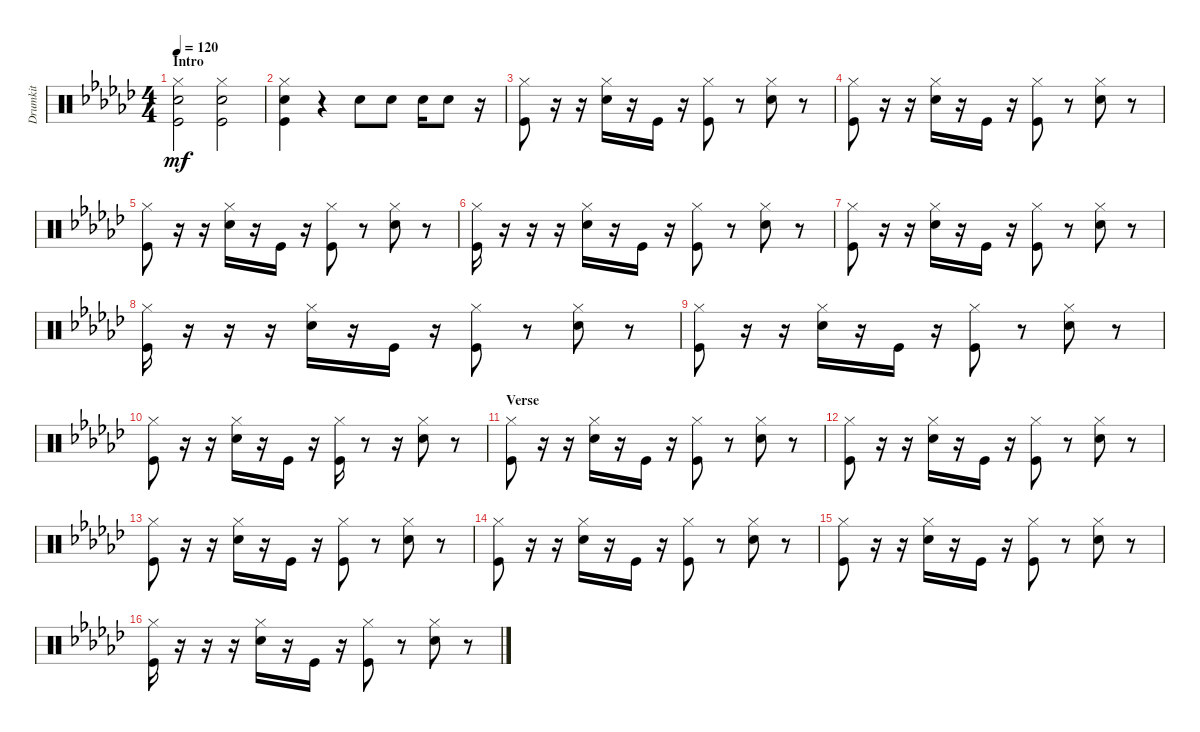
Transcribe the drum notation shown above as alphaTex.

\track ("Drumkit" "Drumkit") {instrument percussion}
\staff {score}
\articulation defaults
\ts (4 4)
\section ("" "Intro")
\tempo 120
\clef neutral
\ks ebminor
("Hi-Hat (closed)" "Snare (hit) 2" "Kick (hit)").2{dy mf} ("Hi-Hat (closed)" "Snare (hit) 2" "Kick (hit)").2 |
("Hi-Hat (closed)" "Snare (hit) 2" "Kick (hit)").4 r.4 "Snare (hit) 2".8 "Snare (hit) 2".8 "Snare (hit) 2".16 "Snare (hit) 2".8 r.16 |
("Kick (hit)" "Hi-Hat (closed)").8 r.16 r.16 ("Snare (hit) 2" "Hi-Hat (closed)").16 r.16 "Kick (hit)".16 r.16 ("Kick (hit)" "Hi-Hat (closed)").8 r.8 ("Snare (hit) 2" "Hi-Hat (closed)").8 r.8 |
("Kick (hit)" "Hi-Hat (closed)").8 r.16 r.16 ("Snare (hit) 2" "Hi-Hat (closed)").16 r.16 "Kick (hit)".16 r.16 ("Kick (hit)" "Hi-Hat (closed)").8 r.8 ("Snare (hit) 2" "Hi-Hat (closed)").8 r.8 |
("Kick (hit)" "Hi-Hat (closed)").8 r.16 r.16 ("Snare (hit) 2" "Hi-Hat (closed)").16 r.16 "Kick (hit)".16 r.16 ("Kick (hit)" "Hi-Hat (closed)").8 r.8 ("Snare (hit) 2" "Hi-Hat (closed)").8 r.8 |
("Kick (hit)" "Hi-Hat (closed)").16 r.16 r.16 r.16 ("Snare (hit) 2" "Hi-Hat (closed)").16 r.16 "Kick (hit)".16 r.16 ("Kick (hit)" "Hi-Hat (closed)").8 r.8 ("Snare (hit) 2" "Hi-Hat (closed)").8 r.8 |
("Kick (hit)" "Hi-Hat (closed)").8 r.16 r.16 ("Snare (hit) 2" "Hi-Hat (closed)").16 r.16 "Kick (hit)".16 r.16 ("Kick (hit)" "Hi-Hat (closed)").8 r.8 ("Snare (hit) 2" "Hi-Hat (closed)").8 r.8 |
("Kick (hit)" "Hi-Hat (closed)").16 r.16 r.16 r.16 ("Snare (hit) 2" "Hi-Hat (closed)").16 r.16 "Kick (hit)".16 r.16 ("Kick (hit)" "Hi-Hat (closed)").8 r.8 ("Snare (hit) 2" "Hi-Hat (closed)").8 r.8 |
("Kick (hit)" "Hi-Hat (closed)").8 r.16 r.16 ("Snare (hit) 2" "Hi-Hat (closed)").16 r.16 "Kick (hit)".16 r.16 ("Kick (hit)" "Hi-Hat (closed)").8 r.8 ("Snare (hit) 2" "Hi-Hat (closed)").8 r.8 |
("Kick (hit)" "Hi-Hat (closed)").8 r.16 r.16 ("Snare (hit) 2" "Hi-Hat (closed)").16 r.16 "Kick (hit)".16 r.16 ("Kick (hit)" "Hi-Hat (closed)").16 r.8 r.16 ("Snare (hit) 2" "Hi-Hat (closed)").8 r.8 |
\section ("" "Verse")
("Kick (hit)" "Hi-Hat (closed)").8 r.16 r.16 ("Snare (hit) 2" "Hi-Hat (closed)").16 r.16 "Kick (hit)".16 r.16 ("Kick (hit)" "Hi-Hat (closed)").8 r.8 ("Snare (hit) 2" "Hi-Hat (closed)").8 r.8 |
("Kick (hit)" "Hi-Hat (closed)").8 r.16 r.16 ("Snare (hit) 2" "Hi-Hat (closed)").16 r.16 "Kick (hit)".16 r.16 ("Kick (hit)" "Hi-Hat (closed)").8 r.8 ("Snare (hit) 2" "Hi-Hat (closed)").8 r.8 |
("Kick (hit)" "Hi-Hat (closed)").8 r.16 r.16 ("Snare (hit) 2" "Hi-Hat (closed)").16 r.16 "Kick (hit)".16 r.16 ("Kick (hit)" "Hi-Hat (closed)").8 r.8 ("Snare (hit) 2" "Hi-Hat (closed)").8 r.8 |
("Kick (hit)" "Hi-Hat (closed)").8 r.16 r.16 ("Snare (hit) 2" "Hi-Hat (closed)").16 r.16 "Kick (hit)".16 r.16 ("Kick (hit)" "Hi-Hat (closed)").8 r.8 ("Snare (hit) 2" "Hi-Hat (closed)").8 r.8 |
("Kick (hit)" "Hi-Hat (closed)").8 r.16 r.16 ("Snare (hit) 2" "Hi-Hat (closed)").16 r.16 "Kick (hit)".16 r.16 ("Kick (hit)" "Hi-Hat (closed)").8 r.8 ("Snare (hit) 2" "Hi-Hat (closed)").8 r.8 |
("Kick (hit)" "Hi-Hat (closed)").16 r.16 r.16 r.16 ("Snare (hit) 2" "Hi-Hat (closed)").16 r.16 "Kick (hit)".16 r.16 ("Kick (hit)" "Hi-Hat (closed)").8 r.8 ("Snare (hit) 2" "Hi-Hat (closed)").8 r.8
